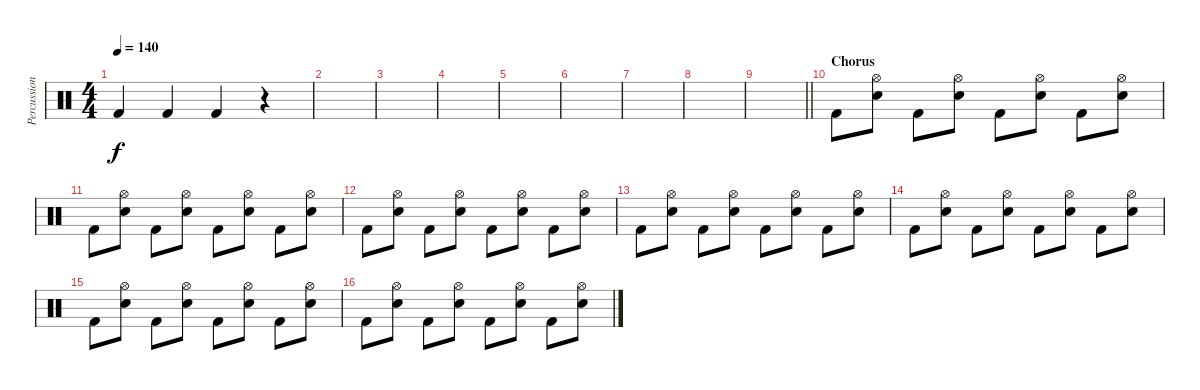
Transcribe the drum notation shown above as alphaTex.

\track ("Percussion" "Percussion") {instrument percussion}
\staff {score}
\articulation defaults
\ts (4 4)
\tempo 140
\clef neutral
\ks c "Kick (hit) 2".4{dy f} "Kick (hit) 2".4 "Kick (hit) 2".4
r.4 |
|
|
|
|
|
|
|
\barLineRight lightlight
|
\section ("" "Chorus")
"Kick (hit) 2".8 ("Hi-Hat (open)" "Hand Clap (hit)").8 "Kick (hit) 2".8 ("Hi-Hat (open)" "Hand Clap (hit)").8 "Kick (hit) 2".8 ("Hi-Hat (open)" "Hand Clap (hit)").8 "Kick (hit) 2".8 ("Hi-Hat (open)" "Hand Clap (hit)").8 |
"Kick (hit) 2".8 ("Hi-Hat (open)" "Hand Clap (hit)").8 "Kick (hit) 2".8 ("Hi-Hat (open)" "Hand Clap (hit)").8 "Kick (hit) 2".8 ("Hi-Hat (open)" "Hand Clap (hit)").8 "Kick (hit) 2".8 ("Hi-Hat (open)" "Hand Clap (hit)").8 |
"Kick (hit) 2".8 ("Hi-Hat (open)" "Hand Clap (hit)").8 "Kick (hit) 2".8 ("Hi-Hat (open)" "Hand Clap (hit)").8 "Kick (hit) 2".8 ("Hi-Hat (open)" "Hand Clap (hit)").8 "Kick (hit) 2".8 ("Hi-Hat (open)" "Hand Clap (hit)").8 |
"Kick (hit) 2".8 ("Hi-Hat (open)" "Hand Clap (hit)").8 "Kick (hit) 2".8 ("Hi-Hat (open)" "Hand Clap (hit)").8 "Kick (hit) 2".8 ("Hi-Hat (open)" "Hand Clap (hit)").8 "Kick (hit) 2".8 ("Hi-Hat (open)" "Hand Clap (hit)").8 |
"Kick (hit) 2".8 ("Hi-Hat (open)" "Hand Clap (hit)").8 "Kick (hit) 2".8 ("Hi-Hat (open)" "Hand Clap (hit)").8 "Kick (hit) 2".8 ("Hi-Hat (open)" "Hand Clap (hit)").8 "Kick (hit) 2".8 ("Hi-Hat (open)" "Hand Clap (hit)").8 |
"Kick (hit) 2".8 ("Hi-Hat (open)" "Hand Clap (hit)").8 "Kick (hit) 2".8 ("Hi-Hat (open)" "Hand Clap (hit)").8 "Kick (hit) 2".8 ("Hi-Hat (open)" "Hand Clap (hit)").8 "Kick (hit) 2".8 ("Hi-Hat (open)" "Hand Clap (hit)").8 |
"Kick (hit) 2".8 ("Hi-Hat (open)" "Hand Clap (hit)").8 "Kick (hit) 2".8 ("Hi-Hat (open)" "Hand Clap (hit)").8 "Kick (hit) 2".8 ("Hi-Hat (open)" "Hand Clap (hit)").8 "Kick (hit) 2".8 ("Hi-Hat (open)" "Hand Clap (hit)").8
